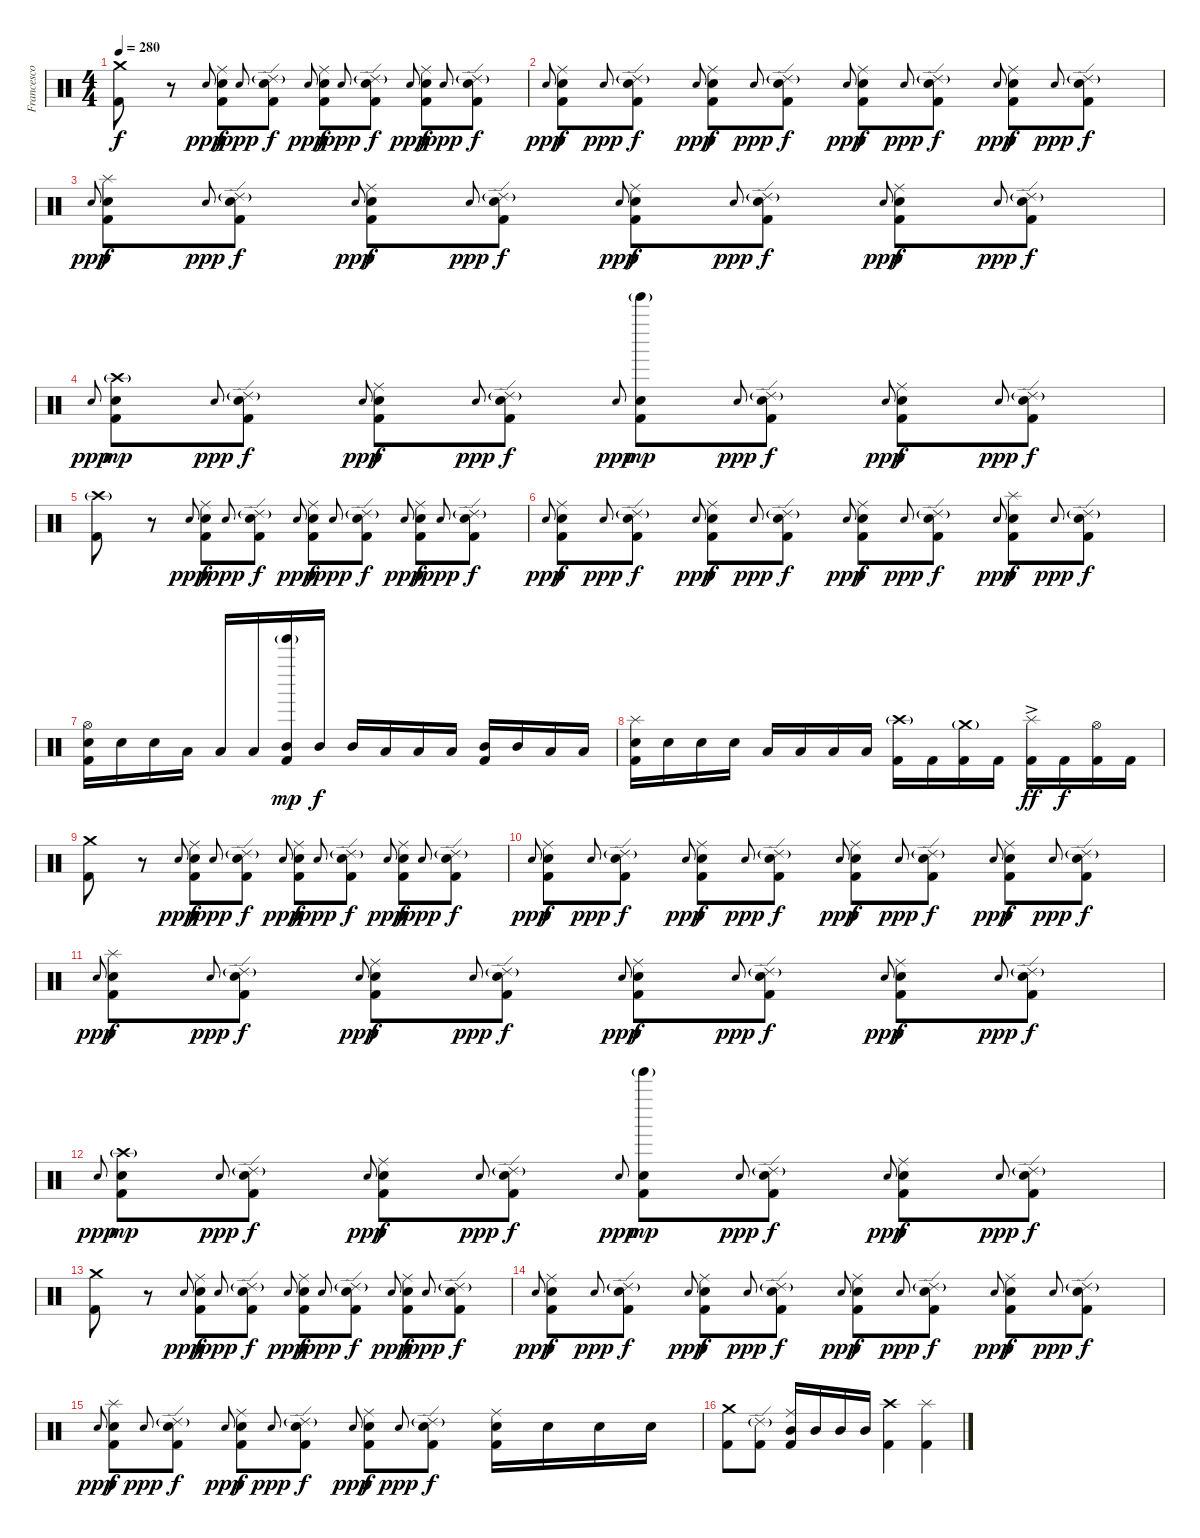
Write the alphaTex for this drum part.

\track ("Francesco Ferrini" "Francesco ") {instrument percussion}
\staff {score}
\articulation defaults
\ts (4 4)
\tempo 280
\clef neutral
\ks c
("Crash medium (hit)" "Kick (hit) 2").8{dy f} r.8 "Electric Snare (hit)"{h}.8{gr onbeat dy ppp} ("Ride (middle)" "Electric Snare (hit)" "Kick (hit) 2").8{dy f} "Electric Snare (hit)"{h}.8{gr onbeat dy ppp} ("Ride (edge) 2"{g} "Electric Snare (hit)" "Kick (hit) 2").8{dy f} "Electric Snare (hit)"{h}.8{gr onbeat dy ppp} ("Ride (middle)" "Electric Snare (hit)" "Kick (hit) 2").8{dy f} "Electric Snare (hit)"{h}.8{gr onbeat dy ppp} ("Ride (edge) 2"{g} "Electric Snare (hit)" "Kick (hit) 2").8{dy f} "Electric Snare (hit)"{h}.8{gr onbeat dy ppp} ("Ride (middle)" "Electric Snare (hit)" "Kick (hit) 2").8{dy f} "Electric Snare (hit)"{h}.8{gr onbeat dy ppp} ("Ride (edge) 2"{g} "Electric Snare (hit)" "Kick (hit) 2").8{dy f} |
"Electric Snare (hit)"{h}.8{gr onbeat dy ppp} ("Ride (middle)" "Electric Snare (hit)" "Kick (hit) 2").8{dy f} "Electric Snare (hit)"{h}.8{gr onbeat dy ppp} ("Ride (edge) 2"{g} "Electric Snare (hit)" "Kick (hit) 2").8{dy f} "Electric Snare (hit)"{h}.8{gr onbeat dy ppp} ("Ride (middle)" "Electric Snare (hit)" "Kick (hit) 2").8{dy f} "Electric Snare (hit)"{h}.8{gr onbeat dy ppp} ("Ride (edge) 2"{g} "Electric Snare (hit)" "Kick (hit) 2").8{dy f} "Electric Snare (hit)"{h}.8{gr onbeat dy ppp} ("Ride (middle)" "Electric Snare (hit)" "Kick (hit) 2").8{dy f} "Electric Snare (hit)"{h}.8{gr onbeat dy ppp} ("Ride (edge) 2"{g} "Electric Snare (hit)" "Kick (hit) 2").8{dy f} "Electric Snare (hit)"{h}.8{gr onbeat dy ppp} ("Ride (middle)" "Electric Snare (hit)" "Kick (hit) 2").8{dy f} "Electric Snare (hit)"{h}.8{gr onbeat dy ppp} ("Ride (edge) 2"{g} "Electric Snare (hit)" "Kick (hit) 2").8{dy f} |
"Electric Snare (hit)"{h}.8{gr onbeat dy ppp} ("Splash (hit)" "Electric Snare (hit)" "Kick (hit) 2").8{dy f} "Electric Snare (hit)"{h}.8{gr onbeat dy ppp} ("Ride (edge) 2"{g} "Electric Snare (hit)" "Kick (hit) 2").8{dy f} "Electric Snare (hit)"{h}.8{gr onbeat dy ppp} ("Ride (middle)" "Electric Snare (hit)" "Kick (hit) 2").8{dy f} "Electric Snare (hit)"{h}.8{gr onbeat dy ppp} ("Ride (edge) 2"{g} "Electric Snare (hit)" "Kick (hit) 2").8{dy f} "Electric Snare (hit)"{h}.8{gr onbeat dy ppp} ("Ride (middle)" "Electric Snare (hit)" "Kick (hit) 2").8{dy f} "Electric Snare (hit)"{h}.8{gr onbeat dy ppp} ("Ride (edge) 2"{g} "Electric Snare (hit)" "Kick (hit) 2").8{dy f} "Electric Snare (hit)"{h}.8{gr onbeat dy ppp} ("Ride (middle)" "Electric Snare (hit)" "Kick (hit) 2").8{dy f} "Electric Snare (hit)"{h}.8{gr onbeat dy ppp} ("Ride (edge) 2"{g} "Electric Snare (hit)" "Kick (hit) 2").8{dy f} |
"Electric Snare (hit)"{h}.8{gr onbeat dy ppp} ("Crash high (hit)"{g} "Electric Snare (hit)" "Kick (hit) 2").8{dy mp} "Electric Snare (hit)"{h}.8{gr onbeat dy ppp} ("Ride (edge) 2"{g} "Electric Snare (hit)" "Kick (hit) 2").8{dy f} "Electric Snare (hit)"{h}.8{gr onbeat dy ppp} ("Ride (middle)" "Electric Snare (hit)" "Kick (hit) 2").8{dy f} "Electric Snare (hit)"{h}.8{gr onbeat dy ppp} ("Ride (edge) 2"{g} "Electric Snare (hit)" "Kick (hit) 2").8{dy f} "Electric Snare (hit)"{h}.8{gr onbeat dy ppp} ("Tinkle Bell (hit)"{g} "Electric Snare (hit)" "Kick (hit) 2").8{dy mp} "Electric Snare (hit)"{h}.8{gr onbeat dy ppp} ("Ride (edge) 2"{g} "Electric Snare (hit)" "Kick (hit) 2").8{dy f} "Electric Snare (hit)"{h}.8{gr onbeat dy ppp} ("Ride (middle)" "Electric Snare (hit)" "Kick (hit) 2").8{dy f} "Electric Snare (hit)"{h}.8{gr onbeat dy ppp} ("Ride (edge) 2"{g} "Electric Snare (hit)" "Kick (hit) 2").8{dy f} |
("Crash high (hit)"{g} "Kick (hit) 2").8 r.8 "Electric Snare (hit)"{h}.8{gr onbeat dy ppp} ("Ride (middle)" "Electric Snare (hit)" "Kick (hit) 2").8{dy f} "Electric Snare (hit)"{h}.8{gr onbeat dy ppp} ("Ride (edge) 2"{g} "Electric Snare (hit)" "Kick (hit) 2").8{dy f} "Electric Snare (hit)"{h}.8{gr onbeat dy ppp} ("Ride (middle)" "Electric Snare (hit)" "Kick (hit) 2").8{dy f} "Electric Snare (hit)"{h}.8{gr onbeat dy ppp} ("Ride (edge) 2"{g} "Electric Snare (hit)" "Kick (hit) 2").8{dy f} "Electric Snare (hit)"{h}.8{gr onbeat dy ppp} ("Ride (middle)" "Electric Snare (hit)" "Kick (hit) 2").8{dy f} "Electric Snare (hit)"{h}.8{gr onbeat dy ppp} ("Ride (edge) 2"{g} "Electric Snare (hit)" "Kick (hit) 2").8{dy f} |
"Electric Snare (hit)"{h}.8{gr onbeat dy ppp} ("Ride (middle)" "Electric Snare (hit)" "Kick (hit) 2").8{dy f} "Electric Snare (hit)"{h}.8{gr onbeat dy ppp} ("Ride (edge) 2"{g} "Electric Snare (hit)" "Kick (hit) 2").8{dy f} "Electric Snare (hit)"{h}.8{gr onbeat dy ppp} ("Ride (middle)" "Electric Snare (hit)" "Kick (hit) 2").8{dy f} "Electric Snare (hit)"{h}.8{gr onbeat dy ppp} ("Ride (edge) 2"{g} "Electric Snare (hit)" "Kick (hit) 2").8{dy f} "Electric Snare (hit)"{h}.8{gr onbeat dy ppp} ("Ride (middle)" "Electric Snare (hit)" "Kick (hit) 2").8{dy f} "Electric Snare (hit)"{h}.8{gr onbeat dy ppp} ("Ride (edge) 2"{g} "Electric Snare (hit)" "Kick (hit) 2").8{dy f} "Electric Snare (hit)"{h}.8{gr onbeat dy ppp} ("Splash (hit)" "Electric Snare (hit)" "Kick (hit) 2").8{dy f} "Electric Snare (hit)"{h}.8{gr onbeat dy ppp} ("Ride (edge) 2"{g} "Electric Snare (hit)" "Kick (hit) 2").8{dy f} |
("Hi-Hat (open)" "Electric Snare (hit)" "Kick (hit) 2").16 "Electric Snare (hit)".16 "Electric Snare (hit)".16 "Low Tom (hit)".16 "Low Tom (hit)".16 "Low Tom (hit)".16 ("Tinkle Bell (hit)"{g} "Mid Tom (hit)" "Kick (hit) 2").16{dy mp} "Mid Tom (hit)".16{dy f} "Mid Tom (hit)".16 "Low Tom (hit)".16 "Low Tom (hit)".16 "Low Tom (hit)".16 ("Mid Tom (hit)" "Kick (hit) 2").16 "Mid Tom (hit)".16 "Low Tom (hit)".16 "Low Tom (hit)".16 |
("Splash (hit)" "Electric Snare (hit)" "Kick (hit) 2").16 "Electric Snare (hit)".16 "Electric Snare (hit)".16 "Electric Snare (hit)".16 "Low Tom (hit)".16 "Low Tom (hit)".16 "Low Tom (hit)".16 "Low Tom (hit)".16 ("Crash high (hit)"{g} "Kick (hit) 2").16 "Kick (hit) 2".16 ("Crash medium (hit)"{g} "Kick (hit) 2").16 "Kick (hit) 2".16 ("Splash (hit)"{ac} "Kick (hit) 2").16{dy ff} "Kick (hit) 2".16{dy f} ("Hi-Hat (open)" "Kick (hit) 2").16 "Kick (hit) 2".16 |
("Crash medium (hit)" "Kick (hit) 2").8 r.8 "Electric Snare (hit)"{h}.8{gr onbeat dy ppp} ("Ride (middle)" "Electric Snare (hit)" "Kick (hit) 2").8{dy f} "Electric Snare (hit)"{h}.8{gr onbeat dy ppp} ("Ride (edge) 2"{g} "Electric Snare (hit)" "Kick (hit) 2").8{dy f} "Electric Snare (hit)"{h}.8{gr onbeat dy ppp} ("Ride (middle)" "Electric Snare (hit)" "Kick (hit) 2").8{dy f} "Electric Snare (hit)"{h}.8{gr onbeat dy ppp} ("Ride (edge) 2"{g} "Electric Snare (hit)" "Kick (hit) 2").8{dy f} "Electric Snare (hit)"{h}.8{gr onbeat dy ppp} ("Ride (middle)" "Electric Snare (hit)" "Kick (hit) 2").8{dy f} "Electric Snare (hit)"{h}.8{gr onbeat dy ppp} ("Ride (edge) 2"{g} "Electric Snare (hit)" "Kick (hit) 2").8{dy f} |
"Electric Snare (hit)"{h}.8{gr onbeat dy ppp} ("Ride (middle)" "Electric Snare (hit)" "Kick (hit) 2").8{dy f} "Electric Snare (hit)"{h}.8{gr onbeat dy ppp} ("Ride (edge) 2"{g} "Electric Snare (hit)" "Kick (hit) 2").8{dy f} "Electric Snare (hit)"{h}.8{gr onbeat dy ppp} ("Ride (middle)" "Electric Snare (hit)" "Kick (hit) 2").8{dy f} "Electric Snare (hit)"{h}.8{gr onbeat dy ppp} ("Ride (edge) 2"{g} "Electric Snare (hit)" "Kick (hit) 2").8{dy f} "Electric Snare (hit)"{h}.8{gr onbeat dy ppp} ("Ride (middle)" "Electric Snare (hit)" "Kick (hit) 2").8{dy f} "Electric Snare (hit)"{h}.8{gr onbeat dy ppp} ("Ride (edge) 2"{g} "Electric Snare (hit)" "Kick (hit) 2").8{dy f} "Electric Snare (hit)"{h}.8{gr onbeat dy ppp} ("Ride (middle)" "Electric Snare (hit)" "Kick (hit) 2").8{dy f} "Electric Snare (hit)"{h}.8{gr onbeat dy ppp} ("Ride (edge) 2"{g} "Electric Snare (hit)" "Kick (hit) 2").8{dy f} |
"Electric Snare (hit)"{h}.8{gr onbeat dy ppp} ("Splash (hit)" "Electric Snare (hit)" "Kick (hit) 2").8{dy f} "Electric Snare (hit)"{h}.8{gr onbeat dy ppp} ("Ride (edge) 2"{g} "Electric Snare (hit)" "Kick (hit) 2").8{dy f} "Electric Snare (hit)"{h}.8{gr onbeat dy ppp} ("Ride (middle)" "Electric Snare (hit)" "Kick (hit) 2").8{dy f} "Electric Snare (hit)"{h}.8{gr onbeat dy ppp} ("Ride (edge) 2"{g} "Electric Snare (hit)" "Kick (hit) 2").8{dy f} "Electric Snare (hit)"{h}.8{gr onbeat dy ppp} ("Ride (middle)" "Electric Snare (hit)" "Kick (hit) 2").8{dy f} "Electric Snare (hit)"{h}.8{gr onbeat dy ppp} ("Ride (edge) 2"{g} "Electric Snare (hit)" "Kick (hit) 2").8{dy f} "Electric Snare (hit)"{h}.8{gr onbeat dy ppp} ("Ride (middle)" "Electric Snare (hit)" "Kick (hit) 2").8{dy f} "Electric Snare (hit)"{h}.8{gr onbeat dy ppp} ("Ride (edge) 2"{g} "Electric Snare (hit)" "Kick (hit) 2").8{dy f} |
"Electric Snare (hit)"{h}.8{gr onbeat dy ppp} ("Crash high (hit)"{g} "Electric Snare (hit)" "Kick (hit) 2").8{dy mp} "Electric Snare (hit)"{h}.8{gr onbeat dy ppp} ("Ride (edge) 2"{g} "Electric Snare (hit)" "Kick (hit) 2").8{dy f} "Electric Snare (hit)"{h}.8{gr onbeat dy ppp} ("Ride (middle)" "Electric Snare (hit)" "Kick (hit) 2").8{dy f} "Electric Snare (hit)"{h}.8{gr onbeat dy ppp} ("Ride (edge) 2"{g} "Electric Snare (hit)" "Kick (hit) 2").8{dy f} "Electric Snare (hit)"{h}.8{gr onbeat dy ppp} ("Tinkle Bell (hit)"{g} "Electric Snare (hit)" "Kick (hit) 2").8{dy mp} "Electric Snare (hit)"{h}.8{gr onbeat dy ppp} ("Ride (edge) 2"{g} "Electric Snare (hit)" "Kick (hit) 2").8{dy f} "Electric Snare (hit)"{h}.8{gr onbeat dy ppp} ("Ride (middle)" "Electric Snare (hit)" "Kick (hit) 2").8{dy f} "Electric Snare (hit)"{h}.8{gr onbeat dy ppp} ("Ride (edge) 2"{g} "Electric Snare (hit)" "Kick (hit) 2").8{dy f} |
("Crash medium (hit)" "Kick (hit) 2").8 r.8 "Electric Snare (hit)"{h}.8{gr onbeat dy ppp} ("Ride (middle)" "Electric Snare (hit)" "Kick (hit) 2").8{dy f} "Electric Snare (hit)"{h}.8{gr onbeat dy ppp} ("Ride (edge) 2"{g} "Electric Snare (hit)" "Kick (hit) 2").8{dy f} "Electric Snare (hit)"{h}.8{gr onbeat dy ppp} ("Ride (middle)" "Electric Snare (hit)" "Kick (hit) 2").8{dy f} "Electric Snare (hit)"{h}.8{gr onbeat dy ppp} ("Ride (edge) 2"{g} "Electric Snare (hit)" "Kick (hit) 2").8{dy f} "Electric Snare (hit)"{h}.8{gr onbeat dy ppp} ("Ride (middle)" "Electric Snare (hit)" "Kick (hit) 2").8{dy f} "Electric Snare (hit)"{h}.8{gr onbeat dy ppp} ("Ride (edge) 2"{g} "Electric Snare (hit)" "Kick (hit) 2").8{dy f} |
"Electric Snare (hit)"{h}.8{gr onbeat dy ppp} ("Ride (middle)" "Electric Snare (hit)" "Kick (hit) 2").8{dy f} "Electric Snare (hit)"{h}.8{gr onbeat dy ppp} ("Ride (edge) 2"{g} "Electric Snare (hit)" "Kick (hit) 2").8{dy f} "Electric Snare (hit)"{h}.8{gr onbeat dy ppp} ("Ride (middle)" "Electric Snare (hit)" "Kick (hit) 2").8{dy f} "Electric Snare (hit)"{h}.8{gr onbeat dy ppp} ("Ride (edge) 2"{g} "Electric Snare (hit)" "Kick (hit) 2").8{dy f} "Electric Snare (hit)"{h}.8{gr onbeat dy ppp} ("Ride (middle)" "Electric Snare (hit)" "Kick (hit) 2").8{dy f} "Electric Snare (hit)"{h}.8{gr onbeat dy ppp} ("Ride (edge) 2"{g} "Electric Snare (hit)" "Kick (hit) 2").8{dy f} "Electric Snare (hit)"{h}.8{gr onbeat dy ppp} ("Ride (middle)" "Electric Snare (hit)" "Kick (hit) 2").8{dy f} "Electric Snare (hit)"{h}.8{gr onbeat dy ppp} ("Ride (edge) 2"{g} "Electric Snare (hit)" "Kick (hit) 2").8{dy f} |
"Electric Snare (hit)"{h}.8{gr onbeat dy ppp} ("Splash (hit)" "Electric Snare (hit)" "Kick (hit) 2").8{dy f} "Electric Snare (hit)"{h}.8{gr onbeat dy ppp} ("Ride (edge) 2"{g} "Electric Snare (hit)" "Kick (hit) 2").8{dy f} "Electric Snare (hit)"{h}.8{gr onbeat dy ppp} ("Ride (middle)" "Electric Snare (hit)" "Kick (hit) 2").8{dy f} "Electric Snare (hit)"{h}.8{gr onbeat dy ppp} ("Ride (edge) 2"{g} "Electric Snare (hit)" "Kick (hit) 2").8{dy f} "Electric Snare (hit)"{h}.8{gr onbeat dy ppp} ("Ride (middle)" "Electric Snare (hit)" "Kick (hit) 2").8{dy f} "Electric Snare (hit)"{h}.8{gr onbeat dy ppp} ("Ride (edge) 2"{g} "Electric Snare (hit)" "Kick (hit) 2").8{dy f} ("Ride (middle)" "Electric Snare (hit)" "Kick (hit) 2").16 "Electric Snare (hit)".16 "Electric Snare (hit)".16 "Electric Snare (hit)".16 |
("Crash medium (hit)" "Kick (hit) 2").8 ("Ride (edge) 2"{g} "Kick (hit) 2").8 ("Mid Tom (hit)" "Ride (middle)" "Kick (hit) 2").16 "Mid Tom (hit)".16 "Mid Tom (hit)".16 "Mid Tom (hit)".16 ("Crash high (hit)" "Kick (hit) 2").4 ("Splash (hit)" "Kick (hit) 2").4
